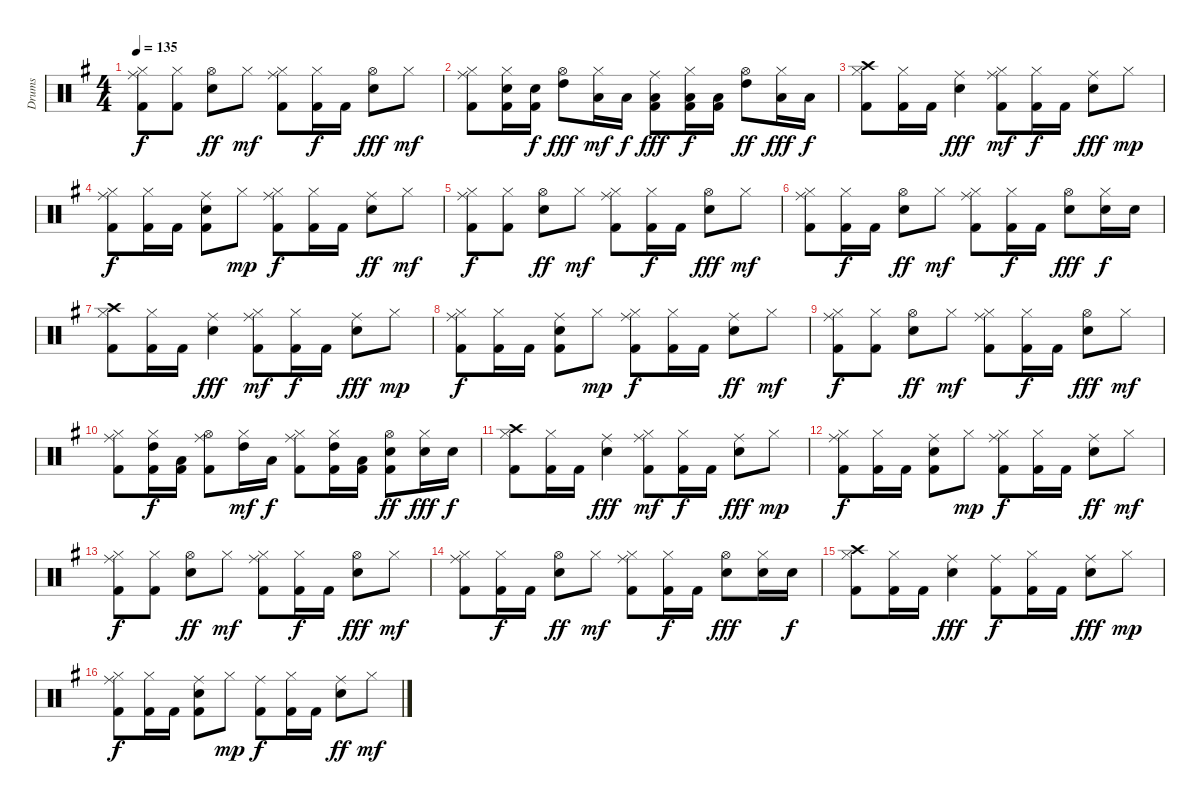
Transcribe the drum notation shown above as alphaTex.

\track ("Drums" "Drums") {instrument percussion}
\staff {score}
\articulation defaults
\ts (4 4)
\tempo 135
\clef neutral
\ks g
("Hi-Hat (closed)" "Ride (middle)" "Kick (hit) 2").8{dy f} ("Hi-Hat (closed)" "Kick (hit) 2").8 ("Hi-Hat (open)" "Electric Snare (hit)").8{dy ff} "Hi-Hat (closed)".8{dy mf} ("Hi-Hat (closed)" "Ride (middle)" "Kick (hit) 2").8 ("Hi-Hat (closed)" "Kick (hit) 2").16{dy f} "Kick (hit) 2".16 ("Hi-Hat (open)" "Electric Snare (hit)").8{dy fff} "Hi-Hat (closed)".8{dy mf} |
("Hi-Hat (closed)" "Ride (middle)" "Kick (hit) 2").8 ("Hi-Hat (closed)" "Electric Snare (hit)" "Kick (hit) 2").16 ("Electric Snare (hit)" "Kick (hit) 2").16{dy f} ("Hi-Hat (open)" "High Tom (hit)").8{dy fff} ("Hi-Hat (closed)" "Low Tom (hit)").16{dy mf} "Low Floor Tom (hit)".16{dy f} ("Ride (middle)" "Low Tom (hit)" "Kick (hit) 2").8{dy fff} ("Hi-Hat (closed)" "Low Tom (hit)" "Kick (hit) 2").16{dy f} ("Low Floor Tom (hit)" "Kick (hit) 2").16 ("Hi-Hat (open)" "High Tom (hit)").8{dy ff} ("Hi-Hat (closed)" "Low Floor Tom (hit)").16{dy fff} "Low Floor Tom (hit)".16{dy f} |
("Hi-Hat (closed)" "Crash high (hit)" "Kick (hit) 2").8 ("Hi-Hat (closed)" "Kick (hit) 2").16 "Kick (hit) 2".16 ("Ride (middle)" "Electric Snare (hit)").4{dy fff} ("Hi-Hat (closed)" "Ride (middle)" "Kick (hit) 2").8{dy mf} ("Hi-Hat (closed)" "Kick (hit) 2").16{dy f} "Kick (hit) 2".16 ("Ride (middle)" "Electric Snare (hit)").8{dy fff} "Hi-Hat (closed)".8{dy mp} |
("Hi-Hat (closed)" "Ride (middle)" "Kick (hit) 2").8{dy f} ("Hi-Hat (closed)" "Kick (hit) 2").16 "Kick (hit) 2".16 ("Ride (middle)" "Electric Snare (hit)" "Kick (hit) 2").8 "Hi-Hat (closed)".8{dy mp} ("Hi-Hat (closed)" "Ride (middle)" "Kick (hit) 2").8{dy f} ("Hi-Hat (closed)" "Kick (hit) 2").16 "Kick (hit) 2".16 ("Ride (middle)" "Electric Snare (hit)").8{dy ff} "Hi-Hat (closed)".8{dy mf} |
("Hi-Hat (closed)" "Ride (middle)" "Kick (hit) 2").8{dy f} ("Hi-Hat (closed)" "Kick (hit) 2").8 ("Hi-Hat (open)" "Electric Snare (hit)").8{dy ff} "Hi-Hat (closed)".8{dy mf} ("Hi-Hat (closed)" "Ride (middle)" "Kick (hit) 2").8 ("Hi-Hat (closed)" "Kick (hit) 2").16{dy f} "Kick (hit) 2".16 ("Hi-Hat (open)" "Electric Snare (hit)").8{dy fff} "Hi-Hat (closed)".8{dy mf} |
("Hi-Hat (closed)" "Ride (middle)" "Kick (hit) 2").8 ("Hi-Hat (closed)" "Kick (hit) 2").16{dy f} "Kick (hit) 2".16 ("Hi-Hat (open)" "Electric Snare (hit)").8{dy ff} "Hi-Hat (closed)".8{dy mf} ("Hi-Hat (closed)" "Ride (middle)" "Kick (hit) 2").8 ("Hi-Hat (closed)" "Kick (hit) 2").16{dy f} "Kick (hit) 2".16 ("Hi-Hat (open)" "Electric Snare (hit)").8{dy fff} ("Hi-Hat (closed)" "Electric Snare (hit)").16{dy f} "Electric Snare (hit)".16 |
("Hi-Hat (closed)" "Crash high (hit)" "Kick (hit) 2").8 ("Hi-Hat (closed)" "Kick (hit) 2").16 "Kick (hit) 2".16 ("Ride (middle)" "Electric Snare (hit)").4{dy fff} ("Hi-Hat (closed)" "Ride (middle)" "Kick (hit) 2").8{dy mf} ("Hi-Hat (closed)" "Kick (hit) 2").16{dy f} "Kick (hit) 2".16 ("Ride (middle)" "Electric Snare (hit)").8{dy fff} "Hi-Hat (closed)".8{dy mp} |
("Hi-Hat (closed)" "Ride (middle)" "Kick (hit) 2").8{dy f} ("Hi-Hat (closed)" "Kick (hit) 2").16 "Kick (hit) 2".16 ("Ride (middle)" "Electric Snare (hit)" "Kick (hit) 2").8 "Hi-Hat (closed)".8{dy mp} ("Hi-Hat (closed)" "Ride (middle)" "Kick (hit) 2").8{dy f} ("Hi-Hat (closed)" "Kick (hit) 2").16 "Kick (hit) 2".16 ("Ride (middle)" "Electric Snare (hit)").8{dy ff} "Hi-Hat (closed)".8{dy mf} |
("Hi-Hat (closed)" "Ride (middle)" "Kick (hit) 2").8{dy f} ("Hi-Hat (closed)" "Kick (hit) 2").8 ("Hi-Hat (open)" "Electric Snare (hit)").8{dy ff} "Hi-Hat (closed)".8{dy mf} ("Hi-Hat (closed)" "Ride (middle)" "Kick (hit) 2").8 ("Hi-Hat (closed)" "Kick (hit) 2").16{dy f} "Kick (hit) 2".16 ("Hi-Hat (open)" "Electric Snare (hit)").8{dy fff} "Hi-Hat (closed)".8{dy mf} |
("Hi-Hat (closed)" "Ride (middle)" "Kick (hit) 2").8 ("Hi-Hat (closed)" "High Tom (hit)" "Kick (hit) 2").16{dy f} ("Low Tom (hit)" "Kick (hit) 2").16 ("Hi-Hat (open)" "Ride (middle)" "Kick (hit) 2").8 ("Hi-Hat (closed)" "High Tom (hit)").16{dy mf} "Low Tom (hit)".16{dy f} ("Hi-Hat (closed)" "Ride (middle)" "Kick (hit) 2").8 ("Hi-Hat (closed)" "High Tom (hit)" "Kick (hit) 2").16 ("Low Tom (hit)" "Kick (hit) 2").16 ("Hi-Hat (open)" "Electric Snare (hit)" "Kick (hit) 2").8{dy ff} ("Hi-Hat (closed)" "Electric Snare (hit)").16{dy fff} "Electric Snare (hit)".16{dy f} |
("Hi-Hat (closed)" "Crash high (hit)" "Kick (hit) 2").8 ("Hi-Hat (closed)" "Kick (hit) 2").16 "Kick (hit) 2".16 ("Ride (middle)" "Electric Snare (hit)").4{dy fff} ("Hi-Hat (closed)" "Ride (middle)" "Kick (hit) 2").8{dy mf} ("Hi-Hat (closed)" "Kick (hit) 2").16{dy f} "Kick (hit) 2".16 ("Ride (middle)" "Electric Snare (hit)").8{dy fff} "Hi-Hat (closed)".8{dy mp} |
("Hi-Hat (closed)" "Ride (middle)" "Kick (hit) 2").8{dy f} ("Hi-Hat (closed)" "Kick (hit) 2").16 "Kick (hit) 2".16 ("Ride (middle)" "Electric Snare (hit)" "Kick (hit) 2").8 "Hi-Hat (closed)".8{dy mp} ("Hi-Hat (closed)" "Ride (middle)" "Kick (hit) 2").8{dy f} ("Hi-Hat (closed)" "Kick (hit) 2").16 "Kick (hit) 2".16 ("Ride (middle)" "Electric Snare (hit)").8{dy ff} "Hi-Hat (closed)".8{dy mf} |
("Hi-Hat (closed)" "Ride (middle)" "Kick (hit) 2").8{dy f} ("Hi-Hat (closed)" "Kick (hit) 2").8 ("Hi-Hat (open)" "Electric Snare (hit)").8{dy ff} "Hi-Hat (closed)".8{dy mf} ("Hi-Hat (closed)" "Ride (middle)" "Kick (hit) 2").8 ("Hi-Hat (closed)" "Kick (hit) 2").16{dy f} "Kick (hit) 2".16 ("Hi-Hat (open)" "Electric Snare (hit)").8{dy fff} "Hi-Hat (closed)".8{dy mf} |
("Hi-Hat (closed)" "Ride (middle)" "Kick (hit) 2").8 ("Hi-Hat (closed)" "Kick (hit) 2").16{dy f} "Kick (hit) 2".16 ("Hi-Hat (open)" "Electric Snare (hit)").8{dy ff} "Hi-Hat (closed)".8{dy mf} ("Hi-Hat (closed)" "Ride (middle)" "Kick (hit) 2").8 ("Hi-Hat (closed)" "Kick (hit) 2").16{dy f} "Kick (hit) 2".16 ("Hi-Hat (open)" "Electric Snare (hit)").8{dy fff} ("Hi-Hat (closed)" "Electric Snare (hit)").16 "Electric Snare (hit)".16{dy f} |
("Hi-Hat (closed)" "Crash high (hit)" "Kick (hit) 2").8 ("Hi-Hat (closed)" "Kick (hit) 2").16 "Kick (hit) 2".16 ("Ride (middle)" "Electric Snare (hit)").4{dy fff} ("Ride (middle)" "Kick (hit) 2").8{dy f} ("Hi-Hat (closed)" "Kick (hit) 2").16 "Kick (hit) 2".16 ("Ride (middle)" "Electric Snare (hit)").8{dy fff} "Hi-Hat (closed)".8{dy mp} |
("Hi-Hat (closed)" "Ride (middle)" "Kick (hit) 2").8{dy f} ("Hi-Hat (closed)" "Kick (hit) 2").16 "Kick (hit) 2".16 ("Ride (middle)" "Electric Snare (hit)" "Kick (hit) 2").8 "Hi-Hat (closed)".8{dy mp} ("Ride (middle)" "Kick (hit) 2").8{dy f} ("Hi-Hat (closed)" "Kick (hit) 2").16 "Kick (hit) 2".16 ("Ride (middle)" "Electric Snare (hit)").8{dy ff} "Hi-Hat (closed)".8{dy mf}
